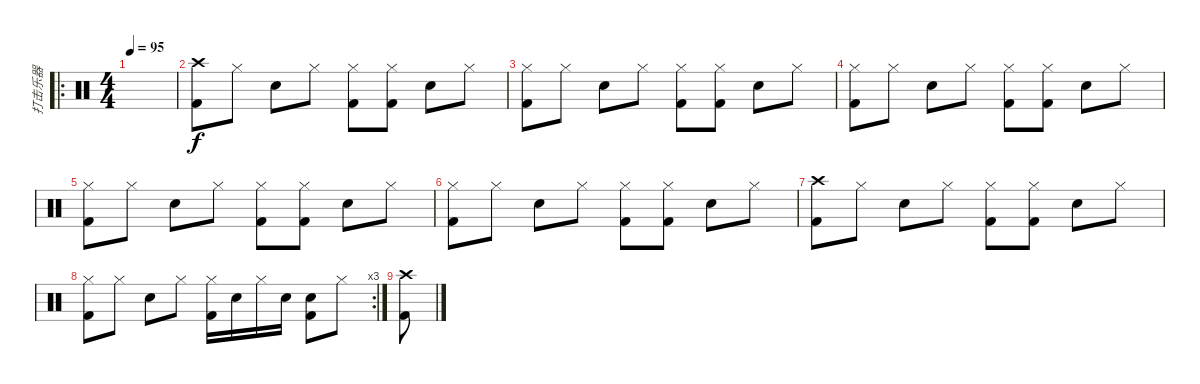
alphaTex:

\track ("打击乐器" "打击乐器") {instrument percussion}
\staff {score}
\articulation defaults
\ro
\ts (4 4)
\tempo 95
\clef neutral
\ks c
|
("Crash high (hit)" "Kick (hit) 2").8 "Hi-Hat (closed)".8 "Snare (hit) 2".8 "Hi-Hat (closed)".8 ("Hi-Hat (closed)" "Kick (hit) 2").8 ("Hi-Hat (closed)" "Kick (hit) 2").8 "Snare (hit) 2".8 "Hi-Hat (closed)".8 |
("Hi-Hat (closed)" "Kick (hit) 2").8 "Hi-Hat (closed)".8 "Snare (hit) 2".8 "Hi-Hat (closed)".8 ("Hi-Hat (closed)" "Kick (hit) 2").8 ("Hi-Hat (closed)" "Kick (hit) 2").8 "Snare (hit) 2".8 "Hi-Hat (closed)".8 |
("Hi-Hat (closed)" "Kick (hit) 2").8 "Hi-Hat (closed)".8 "Snare (hit) 2".8 "Hi-Hat (closed)".8 ("Hi-Hat (closed)" "Kick (hit) 2").8 ("Hi-Hat (closed)" "Kick (hit) 2").8 "Snare (hit) 2".8 "Hi-Hat (closed)".8 |
("Hi-Hat (closed)" "Kick (hit) 2").8 "Hi-Hat (closed)".8 "Snare (hit) 2".8 "Hi-Hat (closed)".8 ("Hi-Hat (closed)" "Kick (hit) 2").8 ("Hi-Hat (closed)" "Kick (hit) 2").8 "Snare (hit) 2".8 "Hi-Hat (closed)".8 |
("Hi-Hat (closed)" "Kick (hit) 2").8 "Hi-Hat (closed)".8 "Snare (hit) 2".8 "Hi-Hat (closed)".8 ("Hi-Hat (closed)" "Kick (hit) 2").8 ("Hi-Hat (closed)" "Kick (hit) 2").8 "Snare (hit) 2".8 "Hi-Hat (closed)".8 |
("Crash high (hit)" "Kick (hit) 2").8 "Hi-Hat (closed)".8 "Snare (hit) 2".8 "Hi-Hat (closed)".8 ("Hi-Hat (closed)" "Kick (hit) 2").8 ("Hi-Hat (closed)" "Kick (hit) 2").8 "Snare (hit) 2".8 "Hi-Hat (closed)".8 |
\rc 3
("Hi-Hat (closed)" "Kick (hit) 2").8 "Hi-Hat (closed)".8 "Snare (hit) 2".8 "Hi-Hat (closed)".8 ("Hi-Hat (closed)" "Kick (hit) 2").16 "Snare (hit) 2".16 "Hi-Hat (closed)".16 "Snare (hit) 2".16 ("Snare (hit) 2" "Kick (hit) 2").8 "Hi-Hat (closed)".8 |
("Crash high (hit)" "Kick (hit) 2").8
